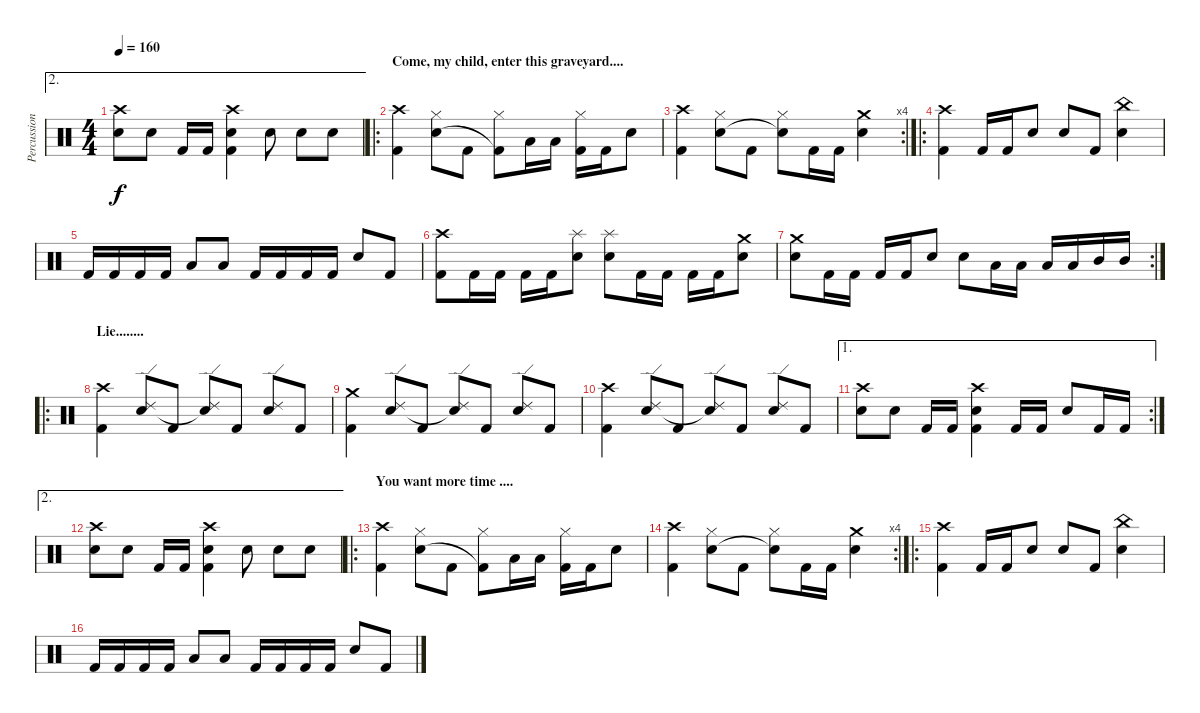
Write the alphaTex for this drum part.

\track ("Percussion" "Percussion") {instrument percussion}
\staff {score}
\articulation defaults
\ae 2
\ts (4 4)
\tempo 160
\clef neutral
\ks c
("Crash high (hit)" "Snare (hit) 2").8{dy f} "Snare (hit) 2".8 "Kick (hit) 2".16 "Kick (hit) 2".16 ("Crash high (hit)" "Snare (hit) 2" "Kick (hit) 2").4 "Snare (hit) 2".8 "Snare (hit) 2".8 "Snare (hit) 2".8 |
\ro
\section ("" "Come, my child, enter this graveyard....")
("Crash high (hit)" "Kick (hit) 2").4 ("Hi-Hat (closed)" "Snare (hit) 2").8 "Kick (hit) 2".8 ("Hi-Hat (closed)" "Kick (hit) 2"{t}).8 "Low Tom (hit)".16 "Low Tom (hit)".16 ("Hi-Hat (closed)" "Kick (hit) 2").16 "Kick (hit) 2".16 "Snare (hit) 2".8 |
\rc 4
("Crash high (hit)" "Kick (hit) 2").4 ("Hi-Hat (closed)" "Snare (hit) 2").8 "Kick (hit) 2".8 ("Hi-Hat (closed)" "Snare (hit)"{t}).8 "Kick (hit) 2".16 "Kick (hit) 2".16 ("Crash medium (hit)" "Snare (hit) 2").4 |
\ro
("Crash high (hit)" "Kick (hit) 2").4 "Kick (hit) 2".16 "Kick (hit) 2".16 "Snare (hit) 2".8 "Snare (hit) 2".8 "Kick (hit) 2".8 ("China (hit)" "Snare (hit) 2").4 |
"Kick (hit) 2".16 "Kick (hit) 2".16 "Kick (hit) 2".16 "Kick (hit) 2".16 "Low Tom (hit)".8 "Low Tom (hit)".8 "Kick (hit) 2".16 "Kick (hit) 2".16 "Kick (hit) 2".16 "Kick (hit) 2".16 "Snare (hit) 2".8 "Kick (hit) 2".8 |
("Crash high (hit)" "Kick (hit) 2").8 "Kick (hit) 2".16 "Kick (hit) 2".16 "Kick (hit) 2".16 "Kick (hit) 2".16 ("Splash (hit)" "Snare (hit) 2").8 ("Splash (hit)" "Snare (hit) 2").8 "Kick (hit) 2".16 "Kick (hit) 2".16 "Kick (hit) 2".16 "Kick (hit) 2".16 ("Crash medium (hit)" "Snare (hit) 2").8 |
\rc 2
("Crash medium (hit)" "Snare (hit) 2").8 "Kick (hit) 2".16 "Kick (hit) 2".16 "Kick (hit) 2".16 "Kick (hit) 2".16 "Snare (hit) 2".8 "Snare (hit) 2".8 "Low Tom (hit)".16 "Low Tom (hit)".16 "Low Tom (hit)".16 "Low Tom (hit)".16 "Mid Tom (hit)".16 "Mid Tom (hit)".16 |
\ro
\section ("" "Lie........")
("Crash high (hit)" "Kick (hit) 2").4 ("Ride (edge) 2" "Snare (hit) 2").8 "Kick (hit) 2".8 ("Ride (edge) 2" "Snare (hit)"{t}).8 "Kick (hit) 2".8 ("Ride (edge) 2" "Snare (hit) 2").8 "Kick (hit) 2".8 |
("Crash medium (hit)" "Kick (hit) 2").4 ("Ride (edge) 2" "Snare (hit) 2").8 "Kick (hit) 2".8 ("Ride (edge) 2" "Snare (hit)"{t}).8 "Kick (hit) 2".8 ("Ride (edge) 2" "Snare (hit) 2").8 "Kick (hit) 2".8 |
("Crash high (hit)" "Kick (hit) 2").4 ("Ride (edge) 2" "Snare (hit) 2").8 "Kick (hit) 2".8 ("Ride (edge) 2" "Snare (hit)"{t}).8 "Kick (hit) 2".8 ("Ride (edge) 2" "Snare (hit) 2").8 "Kick (hit) 2".8 |
\ae 1
\rc 2
("Crash high (hit)" "Snare (hit) 2").8 "Snare (hit) 2".8 "Kick (hit) 2".16 "Kick (hit) 2".16 ("Crash high (hit)" "Snare (hit) 2" "Kick (hit) 2").4 "Kick (hit) 2".16 "Kick (hit) 2".16 "Snare (hit) 2".8 "Kick (hit) 2".16 "Kick (hit) 2".16 |
\ae 2
("Crash high (hit)" "Snare (hit) 2").8 "Snare (hit) 2".8 "Kick (hit) 2".16 "Kick (hit) 2".16 ("Crash high (hit)" "Snare (hit) 2" "Kick (hit) 2").4 "Snare (hit) 2".8 "Snare (hit) 2".8 "Snare (hit) 2".8 |
\ro
\section ("" "You want more time ....")
("Crash high (hit)" "Kick (hit) 2").4 ("Hi-Hat (closed)" "Snare (hit) 2").8 "Kick (hit) 2".8 ("Hi-Hat (closed)" "Kick (hit) 2"{t}).8 "Low Tom (hit)".16 "Low Tom (hit)".16 ("Hi-Hat (closed)" "Kick (hit) 2").16 "Kick (hit) 2".16 "Snare (hit) 2".8 |
\rc 4
("Crash high (hit)" "Kick (hit) 2").4 ("Hi-Hat (closed)" "Snare (hit) 2").8 "Kick (hit) 2".8 ("Hi-Hat (closed)" "Snare (hit)"{t}).8 "Kick (hit) 2".16 "Kick (hit) 2".16 ("Crash medium (hit)" "Snare (hit) 2").4 |
\ro
("Crash high (hit)" "Kick (hit) 2").4 "Kick (hit) 2".16 "Kick (hit) 2".16 "Snare (hit) 2".8 "Snare (hit) 2".8 "Kick (hit) 2".8 ("China (hit)" "Snare (hit) 2").4 |
"Kick (hit) 2".16 "Kick (hit) 2".16 "Kick (hit) 2".16 "Kick (hit) 2".16 "Low Tom (hit)".8 "Low Tom (hit)".8 "Kick (hit) 2".16 "Kick (hit) 2".16 "Kick (hit) 2".16 "Kick (hit) 2".16 "Snare (hit) 2".8 "Kick (hit) 2".8
